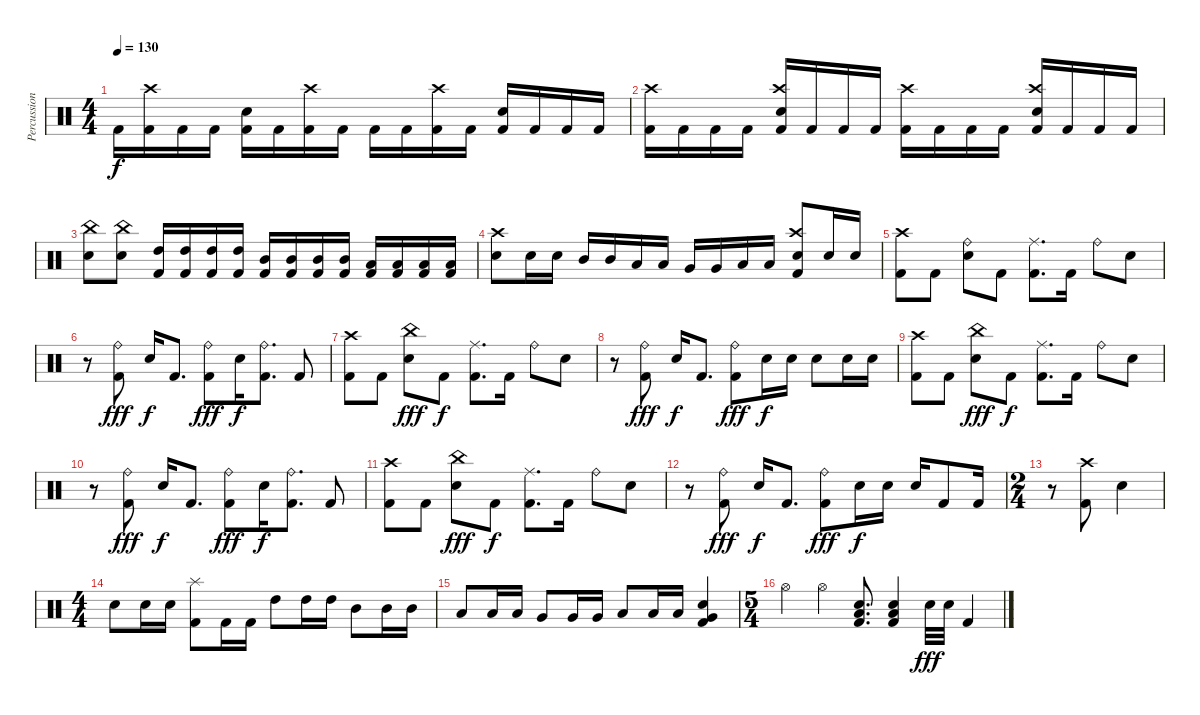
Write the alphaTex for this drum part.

\track ("Percussion" "Percussion") {instrument percussion}
\staff {score}
\articulation defaults
\ts (4 4)
\tempo 130
\clef neutral
\ks c "Kick (hit) 2".16{dy f}
("Kick (hit) 2" "Crash high (hit)").16 "Kick (hit) 2".16 "Kick (hit) 2".16 ("Kick (hit) 2" "Snare (hit) 2").16 "Kick (hit) 2".16 ("Kick (hit) 2" "Crash high (hit)").16 "Kick (hit) 2".16 "Kick (hit) 2".16 "Kick (hit) 2".16 ("Kick (hit) 2" "Crash high (hit)").16 "Kick (hit) 2".16 ("Kick (hit) 2" "Snare (hit) 2").16 "Kick (hit) 2".16 "Kick (hit) 2".16 "Kick (hit) 2".16 |
("Kick (hit) 2" "Crash high (hit)").16 "Kick (hit) 2".16 "Kick (hit) 2".16 "Kick (hit) 2".16 ("Kick (hit) 2" "Snare (hit) 2" "Crash high (hit)").16 "Kick (hit) 2".16 "Kick (hit) 2".16 "Kick (hit) 2".16 ("Kick (hit) 2" "Crash high (hit)").16 "Kick (hit) 2".16 "Kick (hit) 2".16 "Kick (hit) 2".16 ("Kick (hit) 2" "Snare (hit) 2" "Crash high (hit)").16 "Kick (hit) 2".16 "Kick (hit) 2".16 "Kick (hit) 2".16 |
("Snare (hit) 2" "China (hit)").8 ("Snare (hit) 2" "China (hit)").8 ("Kick (hit) 2" "High Tom (hit)").16 ("Kick (hit) 2" "High Tom (hit)").16 ("Kick (hit) 2" "High Tom (hit)").16 ("Kick (hit) 2" "High Tom (hit)").16 ("Kick (hit) 2" "Mid Tom (hit)").16 ("Kick (hit) 2" "Mid Tom (hit)").16 ("Kick (hit) 2" "Mid Tom (hit)").16 ("Kick (hit) 2" "Mid Tom (hit)").16 ("Kick (hit) 2" "Low Tom (hit)").16 ("Kick (hit) 2" "Low Tom (hit)").16 ("Kick (hit) 2" "Low Tom (hit)").16 ("Kick (hit) 2" "Low Tom (hit)").16 |
("Snare (hit) 2" "Crash high (hit)").8 "Snare (hit) 2".16 "Snare (hit) 2".16 "Mid Tom (hit)".16 "Mid Tom (hit)".16 "Low Tom (hit)".16 "Low Tom (hit)".16 "Very Low Tom (hit)".16 "Very Low Tom (hit)".16 "Low Floor Tom (hit)".16 "Low Floor Tom (hit)".16 ("Snare (hit) 2" "Kick (hit) 2" "Crash high (hit)").8 "Snare (hit) 2".16 "Snare (hit) 2".16 |
("Kick (hit) 2" "Crash high (hit)").8 "Kick (hit) 2".8 ("Snare (hit) 2" "Ride (bell)").8 "Kick (hit) 2".8 ("Kick (hit) 2" "Ride (middle)").8{d} "Kick (hit) 2".16 "Ride (bell)".8 "Snare (hit) 2".8 |
r.8 ("Kick (hit) 2" "Ride (bell)").8{dy fff} "Snare (hit) 2".16{dy f} "Kick (hit) 2".8{d} ("Kick (hit) 2" "Ride (bell)").8{dy fff} "Snare (hit) 2".16{dy f} ("Kick (hit) 2" "Ride (bell)").8{d} "Kick (hit) 2".8 |
("Kick (hit) 2" "Crash high (hit)").8 "Kick (hit) 2".8 ("Snare (hit) 2" "China (hit)").8{dy fff} "Kick (hit) 2".8{dy f} ("Kick (hit) 2" "Ride (middle)").8{d} "Kick (hit) 2".16 "Ride (bell)".8 "Snare (hit) 2".8 |
r.8 ("Kick (hit) 2" "Ride (bell)").8{dy fff} "Snare (hit) 2".16{dy f} "Kick (hit) 2".8{d} ("Kick (hit) 2" "Ride (bell)").8{dy fff} "Snare (hit) 2".16{dy f} "Snare (hit) 2".16 "Snare (hit) 2".8 "Snare (hit) 2".16 "Snare (hit) 2".16 |
("Kick (hit) 2" "Crash high (hit)").8 "Kick (hit) 2".8 ("Snare (hit) 2" "China (hit)").8{dy fff} "Kick (hit) 2".8{dy f} ("Kick (hit) 2" "Ride (middle)").8{d} "Kick (hit) 2".16 "Ride (bell)".8 "Snare (hit) 2".8 |
r.8 ("Kick (hit) 2" "Ride (bell)").8{dy fff} "Snare (hit) 2".16{dy f} "Kick (hit) 2".8{d} ("Kick (hit) 2" "Ride (bell)").8{dy fff} "Snare (hit) 2".16{dy f} ("Kick (hit) 2" "Ride (bell)").8{d} "Kick (hit) 2".8 |
("Kick (hit) 2" "Crash high (hit)").8 "Kick (hit) 2".8 ("Snare (hit) 2" "China (hit)").8{dy fff} "Kick (hit) 2".8{dy f} ("Kick (hit) 2" "Ride (middle)").8{d} "Kick (hit) 2".16 "Ride (bell)".8 "Snare (hit) 2".8 |
r.8 ("Kick (hit) 2" "Ride (bell)").8{dy fff} "Snare (hit) 2".16{dy f} "Kick (hit) 2".8{d} ("Kick (hit) 2" "Ride (bell)").8{dy fff} "Snare (hit) 2".16{dy f} "Snare (hit) 2".16 "Snare (hit) 2".16 "Kick (hit) 2".8 "Kick (hit) 2".16 |
\ts (2 4)
r.8 ("Kick (hit) 2" "Crash high (hit)").8 "Snare (hit) 2".4 |
\ts (4 4)
"Snare (hit) 2".8 "Snare (hit) 2".16 "Snare (hit) 2".16 ("Kick (hit) 2" "Splash (hit)").8 "Kick (hit) 2".16 "Kick (hit) 2".16 "High Tom (hit)".8 "High Tom (hit)".16 "High Tom (hit)".16 "Mid Tom (hit)".8 "Mid Tom (hit)".16 "Mid Tom (hit)".16 |
"Low Tom (hit)".8 "Low Tom (hit)".16 "Low Tom (hit)".16 "Very Low Tom (hit)".8 "Very Low Tom (hit)".16 "Very Low Tom (hit)".16 "Low Floor Tom (hit)".8 "Low Floor Tom (hit)".16 "Low Floor Tom (hit)".16 ("Snare (hit) 2" "Very Low Tom (hit)" "Kick (hit) 2").4 |
\ts (5 4)
"Hi-Hat (open)".4 "Hi-Hat (open)".4 ("Snare (hit) 2" "Kick (hit) 2" "Low Tom (hit)").8{d} ("Snare (hit) 2" "Low Tom (hit)" "Kick (hit) 2").4 "Snare (hit) 2".32{dy fff} "Snare (hit) 2".32 "Kick (hit) 2".4
